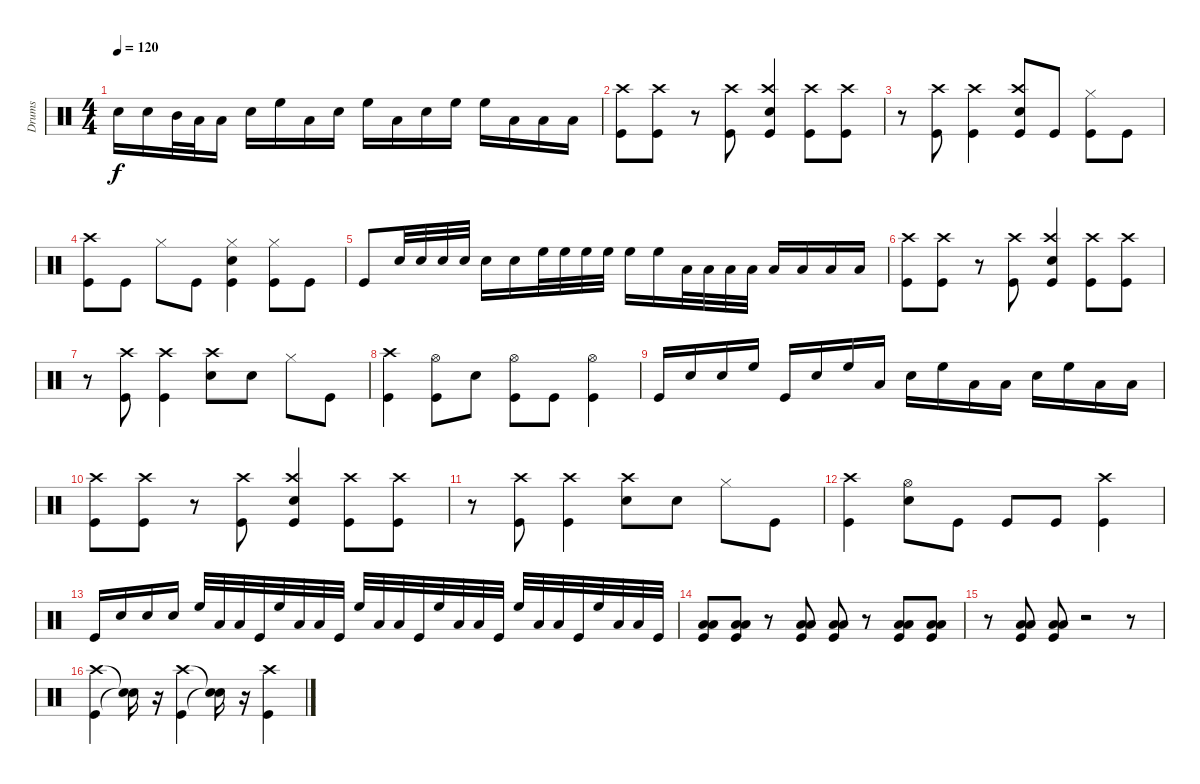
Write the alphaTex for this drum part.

\track ("Drums" "Drums") {instrument percussion}
\staff {score}
\articulation defaults
\ts (4 4)
\tempo 120
\clef neutral
\ks c "Snare (hit) 2".16{dy f} "Snare (hit) 2".16 "Mid Tom (hit)".32 "Low Tom (hit)".32 "Low Floor Tom (hit)".16 "Snare (hit) 2".16 "High Floor Tom (hit)".16 "Low Tom (hit)".16 "Snare (hit) 2".16 "High Floor Tom (hit)".16 "Low Tom (hit)".16 "Snare (hit) 2".16 "High Floor Tom (hit)".16 "High Floor Tom (hit)".16 "Low Tom (hit)".16 "Low Floor Tom (hit)".16 "Low Floor Tom (hit)".16
|
("Crash high (hit)" "Kick (hit)").8 ("Crash high (hit)" "Kick (hit)").8 r.8 ("Crash high (hit)" "Kick (hit)").8 ("Snare (hit) 2" "Crash high (hit)" "Kick (hit)").4 ("Crash high (hit)" "Kick (hit)").8 ("Crash high (hit)" "Kick (hit)").8 |
r.8 ("Crash high (hit)" "Kick (hit)").8 ("Crash high (hit)" "Kick (hit)").4 ("Snare (hit) 2" "Crash high (hit)" "Kick (hit)").8 "Kick (hit)".8 ("Hi-Hat (closed)" "Kick (hit)").8 "Kick (hit)".8 |
("Kick (hit)" "Crash high (hit)").8 "Kick (hit)".8 "Hi-Hat (closed)".8 "Kick (hit)".8 ("Kick (hit)" "Snare (hit) 2" "Hi-Hat (closed)").4 ("Kick (hit)" "Hi-Hat (closed)").8 "Kick (hit)".8 |
"Kick (hit)".8 "Snare (hit) 2".32 "Snare (hit) 2".32 "Snare (hit) 2".32 "Snare (hit) 2".32 "Snare (hit) 2".16 "Snare (hit) 2".16 "High Floor Tom (hit)".32 "High Floor Tom (hit)".32 "High Floor Tom (hit)".32 "High Floor Tom (hit)".32 "High Floor Tom (hit)".16 "High Floor Tom (hit)".16 "Low Tom (hit)".32 "Low Tom (hit)".32 "Low Tom (hit)".32 "Low Tom (hit)".32 "Low Tom (hit)".16 "Low Tom (hit)".16 "Low Floor Tom (hit)".16 "Low Floor Tom (hit)".16 |
("Crash high (hit)" "Kick (hit)").8 ("Crash high (hit)" "Kick (hit)").8 r.8 ("Crash high (hit)" "Kick (hit)").8 ("Snare (hit) 2" "Crash high (hit)" "Kick (hit)").4 ("Crash high (hit)" "Kick (hit)").8 ("Crash high (hit)" "Kick (hit)").8 |
r.8 ("Crash high (hit)" "Kick (hit)").8 ("Crash high (hit)" "Kick (hit)").4 ("Snare (hit) 2" "Crash high (hit)").8 "Snare (hit) 2".8 "Hi-Hat (closed)".8 "Kick (hit)".8 |
("Kick (hit)" "Crash high (hit)").4 ("Kick (hit)" "Hi-Hat (open)").8 "Snare (hit) 2".8 ("Kick (hit)" "Hi-Hat (open)").8 "Kick (hit)".8 ("Hi-Hat (open)" "Kick (hit)").4 |
"Kick (hit)".16 "Snare (hit) 2".16 "Snare (hit) 2".16 "High Floor Tom (hit)".16 "Kick (hit)".16 "Snare (hit) 2".16 "High Floor Tom (hit)".16 "Low Tom (hit)".16 "Snare (hit) 2".16 "High Floor Tom (hit)".16 "Low Tom (hit)".16 "Low Floor Tom (hit)".16 "Snare (hit) 2".16 "High Floor Tom (hit)".16 "Low Tom (hit)".16 "Low Floor Tom (hit)".16 |
("Kick (hit)" "Crash high (hit)").8 ("Kick (hit)" "Crash high (hit)").8 r.8 ("Kick (hit)" "Crash high (hit)").8 ("Kick (hit)" "Snare (hit) 2" "Crash high (hit)").4 ("Kick (hit)" "Crash high (hit)").8 ("Kick (hit)" "Crash high (hit)").8 |
r.8 ("Kick (hit)" "Crash high (hit)").8 ("Kick (hit)" "Crash high (hit)").4 ("Snare (hit) 2" "Crash high (hit)").8 "Snare (hit) 2".8 "Hi-Hat (closed)".8 "Kick (hit)".8 |
("Crash high (hit)" "Kick (hit)").4 ("Snare (hit) 2" "Hi-Hat (open)").8 "Kick (hit)".8 "Kick (hit)".8 "Kick (hit)".8 ("Kick (hit)" "Crash high (hit)").4 |
"Kick (hit)".16 "Snare (hit) 2".16 "Snare (hit) 2".16 "Snare (hit) 2".16 "High Floor Tom (hit)".32 "Low Tom (hit)".32 "Low Floor Tom (hit)".32 "Kick (hit)".32 "High Floor Tom (hit)".32 "Low Tom (hit)".32 "Low Floor Tom (hit)".32 "Kick (hit)".32 "High Floor Tom (hit)".32 "Low Tom (hit)".32 "Low Floor Tom (hit)".32 "Kick (hit)".32 "High Floor Tom (hit)".32 "Low Tom (hit)".32 "Low Floor Tom (hit)".32 "Kick (hit)".32 "High Floor Tom (hit)".32 "Low Tom (hit)".32 "Low Floor Tom (hit)".32 "Kick (hit)".32 "High Floor Tom (hit)".32 "Low Tom (hit)".32 "Low Floor Tom (hit)".32 "Kick (hit)".32 |
("Low Floor Tom (hit)" "Low Tom (hit)" "Kick (hit)").8 ("Low Floor Tom (hit)" "Low Tom (hit)" "Kick (hit)").8 r.8 ("Low Floor Tom (hit)" "Low Tom (hit)" "Kick (hit)").8 ("Low Floor Tom (hit)" "Low Tom (hit)" "Kick (hit)").8 r.8 ("Low Floor Tom (hit)" "Low Tom (hit)" "Kick (hit)").8 ("Low Floor Tom (hit)" "Low Tom (hit)" "Kick (hit)").8 |
r.8 ("Low Floor Tom (hit)" "Low Tom (hit)" "Kick (hit)").8 ("Low Floor Tom (hit)" "Low Tom (hit)" "Kick (hit)").8 r.2 r.8 |
("Crash high (hit)" "Kick (hit)").4 ("Snare (hit)"{t} "Snare (hit)"{t}).16 r.16 ("Crash high (hit)" "Kick (hit)").4 ("Snare (hit)"{t} "Snare (hit)"{t}).16 r.16 ("Crash high (hit)" "Kick (hit)").4
